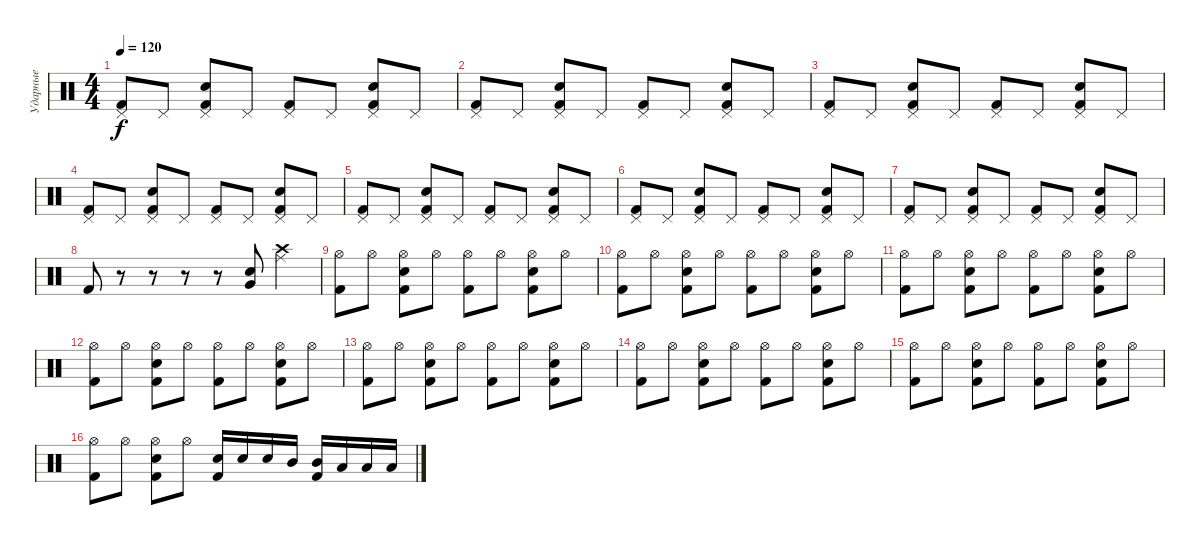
\track ("Ударные" "Ударные") {instrument percussion}
\staff {score}
\articulation defaults
\ts (4 4)
\tempo 120
\clef neutral
\ks c
("Pedal Hi-Hat (hit)" "Kick (hit) 2").8{dy f} "Pedal Hi-Hat (hit)".8 ("Pedal Hi-Hat (hit)" "Kick (hit) 2" "Snare (hit) 2").8 "Pedal Hi-Hat (hit)".8 ("Pedal Hi-Hat (hit)" "Kick (hit) 2").8 "Pedal Hi-Hat (hit)".8 ("Pedal Hi-Hat (hit)" "Kick (hit) 2" "Snare (hit) 2").8 "Pedal Hi-Hat (hit)".8 |
("Pedal Hi-Hat (hit)" "Kick (hit) 2").8 "Pedal Hi-Hat (hit)".8 ("Pedal Hi-Hat (hit)" "Kick (hit) 2" "Snare (hit) 2").8 "Pedal Hi-Hat (hit)".8 ("Pedal Hi-Hat (hit)" "Kick (hit) 2").8 "Pedal Hi-Hat (hit)".8 ("Pedal Hi-Hat (hit)" "Kick (hit) 2" "Snare (hit) 2").8 "Pedal Hi-Hat (hit)".8 |
("Pedal Hi-Hat (hit)" "Kick (hit) 2").8 "Pedal Hi-Hat (hit)".8 ("Pedal Hi-Hat (hit)" "Kick (hit) 2" "Snare (hit) 2").8 "Pedal Hi-Hat (hit)".8 ("Pedal Hi-Hat (hit)" "Kick (hit) 2").8 "Pedal Hi-Hat (hit)".8 ("Pedal Hi-Hat (hit)" "Kick (hit) 2" "Snare (hit) 2").8 "Pedal Hi-Hat (hit)".8 |
("Pedal Hi-Hat (hit)" "Kick (hit) 2").8 "Pedal Hi-Hat (hit)".8 ("Pedal Hi-Hat (hit)" "Kick (hit) 2" "Snare (hit) 2").8 "Pedal Hi-Hat (hit)".8 ("Pedal Hi-Hat (hit)" "Kick (hit) 2").8 "Pedal Hi-Hat (hit)".8 ("Pedal Hi-Hat (hit)" "Kick (hit) 2" "Snare (hit) 2").8 "Pedal Hi-Hat (hit)".8 |
("Pedal Hi-Hat (hit)" "Kick (hit) 2").8 "Pedal Hi-Hat (hit)".8 ("Pedal Hi-Hat (hit)" "Kick (hit) 2" "Snare (hit) 2").8 "Pedal Hi-Hat (hit)".8 ("Pedal Hi-Hat (hit)" "Kick (hit) 2").8 "Pedal Hi-Hat (hit)".8 ("Pedal Hi-Hat (hit)" "Kick (hit) 2" "Snare (hit) 2").8 "Pedal Hi-Hat (hit)".8 |
("Pedal Hi-Hat (hit)" "Kick (hit) 2").8 "Pedal Hi-Hat (hit)".8 ("Pedal Hi-Hat (hit)" "Kick (hit) 2" "Snare (hit) 2").8 "Pedal Hi-Hat (hit)".8 ("Pedal Hi-Hat (hit)" "Kick (hit) 2").8 "Pedal Hi-Hat (hit)".8 ("Pedal Hi-Hat (hit)" "Kick (hit) 2" "Snare (hit) 2").8 "Pedal Hi-Hat (hit)".8 |
("Pedal Hi-Hat (hit)" "Kick (hit) 2").8 "Pedal Hi-Hat (hit)".8 ("Pedal Hi-Hat (hit)" "Kick (hit) 2" "Snare (hit) 2").8 "Pedal Hi-Hat (hit)".8 ("Pedal Hi-Hat (hit)" "Kick (hit) 2").8 "Pedal Hi-Hat (hit)".8 ("Pedal Hi-Hat (hit)" "Kick (hit) 2" "Snare (hit) 2").8 "Pedal Hi-Hat (hit)".8 |
"Kick (hit) 2".8 r.8 r.8 r.8 r.8 ("Snare (hit) 2" "Very Low Tom (hit)").8 ("Ride (middle)" "Crash high (hit)").4 |
("Hi-Hat (open)" "Kick (hit) 2").8 "Hi-Hat (open)".8 ("Hi-Hat (open)" "Kick (hit) 2" "Snare (hit) 2").8 "Hi-Hat (open)".8 ("Hi-Hat (open)" "Kick (hit) 2").8 "Hi-Hat (open)".8 ("Hi-Hat (open)" "Kick (hit) 2" "Snare (hit) 2").8 "Hi-Hat (open)".8 |
("Hi-Hat (open)" "Kick (hit) 2").8 "Hi-Hat (open)".8 ("Hi-Hat (open)" "Kick (hit) 2" "Snare (hit) 2").8 "Hi-Hat (open)".8 ("Hi-Hat (open)" "Kick (hit) 2").8 "Hi-Hat (open)".8 ("Hi-Hat (open)" "Kick (hit) 2" "Snare (hit) 2").8 "Hi-Hat (open)".8 |
("Hi-Hat (open)" "Kick (hit) 2").8 "Hi-Hat (open)".8 ("Hi-Hat (open)" "Kick (hit) 2" "Snare (hit) 2").8 "Hi-Hat (open)".8 ("Hi-Hat (open)" "Kick (hit) 2").8 "Hi-Hat (open)".8 ("Hi-Hat (open)" "Kick (hit) 2" "Snare (hit) 2").8 "Hi-Hat (open)".8 |
("Hi-Hat (open)" "Kick (hit) 2").8 "Hi-Hat (open)".8 ("Hi-Hat (open)" "Kick (hit) 2" "Snare (hit) 2").8 "Hi-Hat (open)".8 ("Hi-Hat (open)" "Kick (hit) 2").8 "Hi-Hat (open)".8 ("Hi-Hat (open)" "Kick (hit) 2" "Snare (hit) 2").8 "Hi-Hat (open)".8 |
("Hi-Hat (open)" "Kick (hit) 2").8 "Hi-Hat (open)".8 ("Hi-Hat (open)" "Kick (hit) 2" "Snare (hit) 2").8 "Hi-Hat (open)".8 ("Hi-Hat (open)" "Kick (hit) 2").8 "Hi-Hat (open)".8 ("Hi-Hat (open)" "Kick (hit) 2" "Snare (hit) 2").8 "Hi-Hat (open)".8 |
("Hi-Hat (open)" "Kick (hit) 2").8 "Hi-Hat (open)".8 ("Hi-Hat (open)" "Kick (hit) 2" "Snare (hit) 2").8 "Hi-Hat (open)".8 ("Hi-Hat (open)" "Kick (hit) 2").8 "Hi-Hat (open)".8 ("Hi-Hat (open)" "Kick (hit) 2" "Snare (hit) 2").8 "Hi-Hat (open)".8 |
("Hi-Hat (open)" "Kick (hit) 2").8 "Hi-Hat (open)".8 ("Hi-Hat (open)" "Kick (hit) 2" "Snare (hit) 2").8 "Hi-Hat (open)".8 ("Hi-Hat (open)" "Kick (hit) 2").8 "Hi-Hat (open)".8 ("Hi-Hat (open)" "Kick (hit) 2" "Snare (hit) 2").8 "Hi-Hat (open)".8 |
("Hi-Hat (open)" "Kick (hit) 2").8 "Hi-Hat (open)".8 ("Hi-Hat (open)" "Kick (hit) 2" "Snare (hit) 2").8 "Hi-Hat (open)".8 ("Snare (hit) 2" "Kick (hit) 2").16 "Snare (hit) 2".16 "Snare (hit) 2".16 "Mid Tom (hit)".16 ("Mid Tom (hit)" "Kick (hit) 2").16 "Low Tom (hit)".16 "Low Tom (hit)".16 "Low Tom (hit)".16
